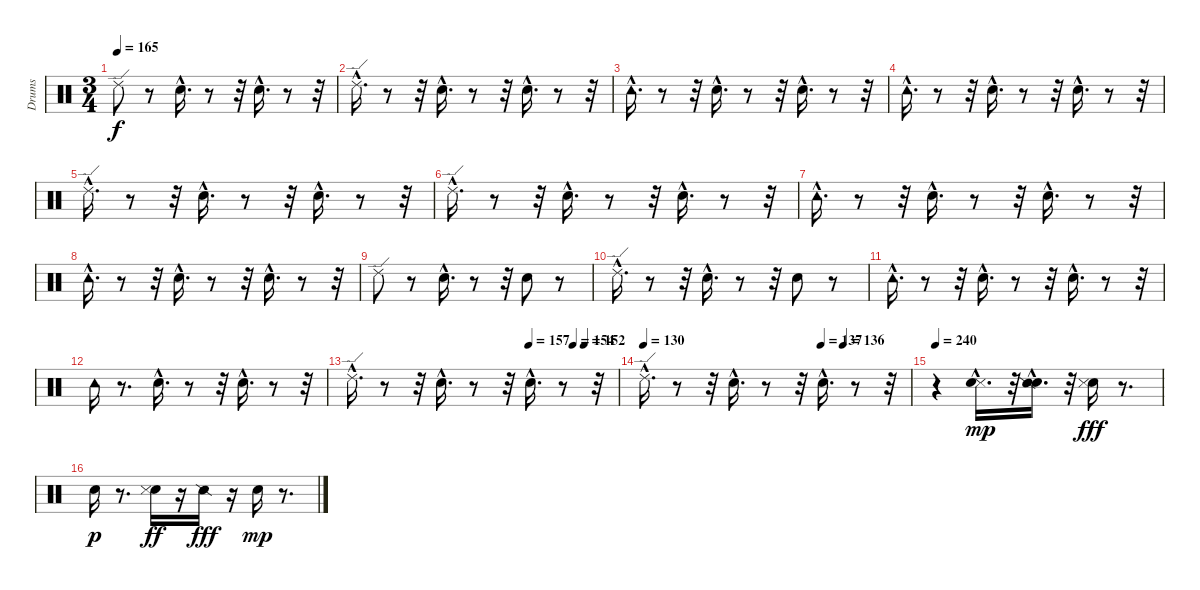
\track ("Drums" "Drums") {instrument percussion}
\staff {score}
\articulation defaults
\ts (3 4)
\tempo 165
\clef neutral
\ks c "Ride (edge) 2".8{dy f}
r.8 "Snare (hit)"{hac}.16{d} r.8 r.32 "Snare (hit)"{hac}.16{d} r.8 r.32 |
"Ride (edge) 2"{hac}.16{d} r.8 r.32 "Snare (hit)"{hac}.16{d} r.8 r.32 "Snare (hit)"{hac}.16{d} r.8 r.32 |
"Tambourine (hit)"{hac}.16{d} r.8 r.32 "Snare (hit)"{hac}.16{d} r.8 r.32 "Snare (hit)"{hac}.16{d} r.8 r.32 |
"Tambourine (hit)"{hac}.16{d} r.8 r.32 "Snare (hit)"{hac}.16{d} r.8 r.32 "Snare (hit)"{hac}.16{d} r.8 r.32 |
"Ride (edge) 2"{hac}.16{d} r.8 r.32 "Snare (hit)"{hac}.16{d} r.8 r.32 "Snare (hit)"{hac}.16{d} r.8 r.32 |
"Ride (edge) 2"{hac}.16{d} r.8 r.32 "Snare (hit)"{hac}.16{d} r.8 r.32 "Snare (hit)"{hac}.16{d} r.8 r.32 |
"Tambourine (hit)"{hac}.16{d} r.8 r.32 "Snare (hit)"{hac}.16{d} r.8 r.32 "Snare (hit)"{hac}.16{d} r.8 r.32 |
"Tambourine (hit)"{hac}.16{d} r.8 r.32 "Snare (hit)"{hac}.16{d} r.8 r.32 "Snare (hit)"{hac}.16{d} r.8 r.32 |
"Ride (edge) 2".8 r.8 "Snare (hit)"{hac}.16{d} r.8 r.32 "Snare (hit)".8 r.8 |
"Ride (edge) 2"{hac}.16{d} r.8 r.32 "Snare (hit)"{hac}.16{d} r.8 r.32 "Snare (hit)".8 r.8 |
"Tambourine (hit)"{hac}.16{d} r.8 r.32 "Snare (hit)"{hac}.16{d} r.8 r.32 "Snare (hit)"{hac}.16{d} r.8 r.32 |
"Tambourine (hit)".16 r.8{d} "Snare (hit)"{hac}.16{d} r.8 r.32 "Snare (hit)"{hac}.16{d} r.8 r.32 |
\tempo (157 0.6666666666666666)
\tempo (154 0.8333333333333334)
\tempo (152 0.875)
"Ride (edge) 2"{hac}.16{d} r.8 r.32 "Snare (hit)"{hac}.16{d} r.8 r.32 "Snare (hit)"{hac}.16{d} r.8 r.32 |
\tempo 130
\tempo (137 0.6666666666666666)
\tempo (136 0.75)
"Ride (edge) 2"{hac}.16{d} r.8 r.32 "Snare (hit)"{hac}.16{d} r.8 r.32 "Snare (hit)"{hac}.16{d} r.8 r.32 |
\tempo 240
r.4 ("Snare (side stick) 3"{hac} "Electric Snare (hit)").16{d dy mp} r.32 ("Electric Snare (hit)" "Snare (side stick) 2"{hac}).16{d} r.32 ("Electric Snare (hit)" "Snare (side stick) 3").16{dy fff} r.8{d} |
"Electric Snare (hit)".16{dy p} r.8{d} ("Electric Snare (hit)" "Snare (side stick) 3").16{dy ff} r.16 "Snare (side stick) 2".16{dy fff} r.16 "Electric Snare (hit)".16{dy mp} r.8{d}
